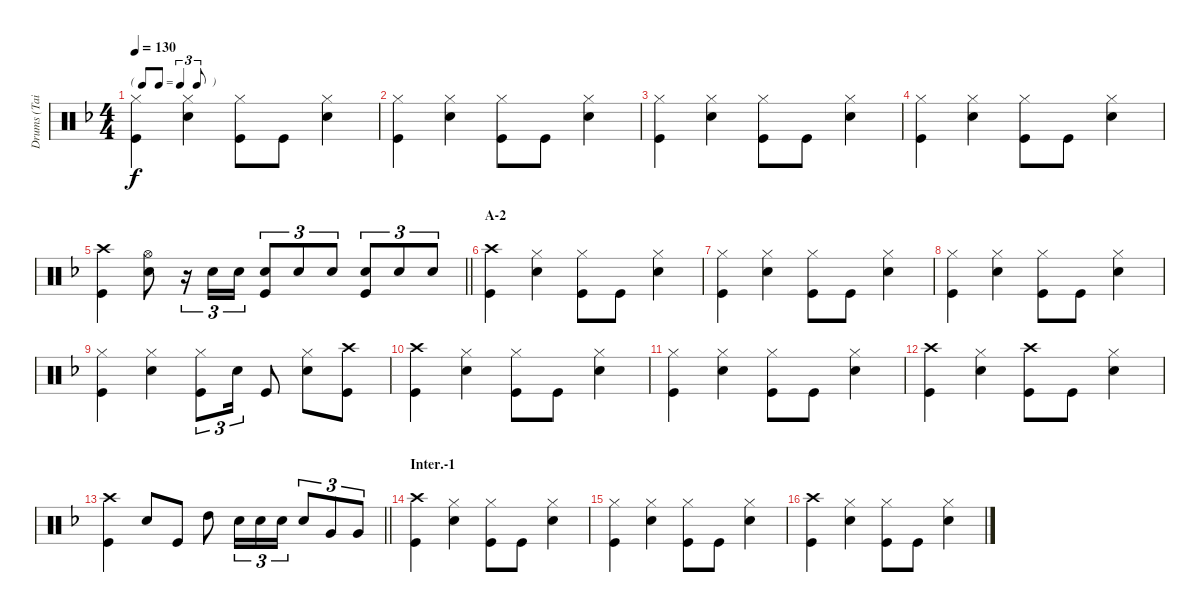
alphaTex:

\track ("Drums (Tainaka Ritsu)" "Drums (Tai") {instrument percussion}
\staff {score}
\articulation defaults
\ts (4 4)
\tf triplet8th
\tempo 130
\clef neutral
\ks f
("Hi-Hat (closed)" "Kick (hit)").4{dy f} ("Hi-Hat (closed)" "Snare (hit) 2").4 ("Hi-Hat (closed)" "Kick (hit)").8 "Kick (hit)".8 ("Hi-Hat (closed)" "Snare (hit) 2").4 |
("Hi-Hat (closed)" "Kick (hit)").4 ("Hi-Hat (closed)" "Snare (hit) 2").4 ("Hi-Hat (closed)" "Kick (hit)").8 "Kick (hit)".8 ("Hi-Hat (closed)" "Snare (hit) 2").4 |
("Hi-Hat (closed)" "Kick (hit)").4 ("Hi-Hat (closed)" "Snare (hit) 2").4 ("Hi-Hat (closed)" "Kick (hit)").8 "Kick (hit)".8 ("Hi-Hat (closed)" "Snare (hit) 2").4 |
("Hi-Hat (closed)" "Kick (hit)").4 ("Hi-Hat (closed)" "Snare (hit) 2").4 ("Hi-Hat (closed)" "Kick (hit)").8 "Kick (hit)".8 ("Hi-Hat (closed)" "Snare (hit) 2").4 |
\barLineRight lightlight
("Crash high (hit)" "Kick (hit)").4 ("Hi-Hat (open)" "Snare (hit) 2").8 r.16{tu (3 2)} "Snare (hit) 2".16{tu (3 2)} "Snare (hit) 2".16{tu (3 2)} ("Snare (hit) 2" "Kick (hit)").8{tu (3 2)} "Snare (hit) 2".8{tu (3 2)} "Snare (hit) 2".8{tu (3 2)} ("Snare (hit) 2" "Kick (hit)").8{tu (3 2)} "Snare (hit) 2".8{tu (3 2)} "Snare (hit) 2".8{tu (3 2)} |
\section ("" "A-2")
("Crash high (hit)" "Kick (hit)").4 ("Hi-Hat (closed)" "Snare (hit) 2").4 ("Hi-Hat (closed)" "Kick (hit)").8 "Kick (hit)".8 ("Hi-Hat (closed)" "Snare (hit) 2").4 |
("Hi-Hat (closed)" "Kick (hit)").4 ("Hi-Hat (closed)" "Snare (hit) 2").4 ("Hi-Hat (closed)" "Kick (hit)").8 "Kick (hit)".8 ("Hi-Hat (closed)" "Snare (hit) 2").4 |
("Hi-Hat (closed)" "Kick (hit)").4 ("Hi-Hat (closed)" "Snare (hit) 2").4 ("Hi-Hat (closed)" "Kick (hit)").8 "Kick (hit)".8 ("Hi-Hat (closed)" "Snare (hit) 2").4 |
("Hi-Hat (closed)" "Kick (hit)").4 ("Hi-Hat (closed)" "Snare (hit) 2").4 ("Hi-Hat (closed)" "Kick (hit)").8{tu (3 2)} "Snare (hit) 2".16{tu (3 2)} "Kick (hit)".8 ("Hi-Hat (closed)" "Snare (hit) 2").8 ("Crash high (hit)" "Kick (hit)").8 |
("Crash high (hit)" "Kick (hit)").4 ("Hi-Hat (closed)" "Snare (hit) 2").4 ("Hi-Hat (closed)" "Kick (hit)").8 "Kick (hit)".8 ("Hi-Hat (closed)" "Snare (hit) 2").4 |
("Hi-Hat (closed)" "Kick (hit)").4 ("Hi-Hat (closed)" "Snare (hit) 2").4 ("Hi-Hat (closed)" "Kick (hit)").8 "Kick (hit)".8 ("Hi-Hat (closed)" "Snare (hit) 2").4 |
("Crash high (hit)" "Kick (hit)").4 ("Hi-Hat (closed)" "Snare (hit) 2").4 ("Crash high (hit)" "Kick (hit)").8 "Kick (hit)".8 ("Hi-Hat (closed)" "Snare (hit) 2").4 |
\barLineRight lightlight
("Crash high (hit)" "Kick (hit)").4 "Snare (hit) 2".8 "Kick (hit)".8 "High Tom (hit)".8 "Snare (hit) 2".16{tu (3 2)} "Snare (hit) 2".16{tu (3 2)} "Snare (hit) 2".16{tu (3 2)} "Snare (hit) 2".8{tu (3 2)} "Very Low Tom (hit)".8{tu (3 2)} "Very Low Tom (hit)".8{tu (3 2)} |
\section ("" "Inter.-1")
("Crash high (hit)" "Kick (hit)").4 ("Hi-Hat (closed)" "Snare (hit) 2").4 ("Hi-Hat (closed)" "Kick (hit)").8 "Kick (hit)".8 ("Hi-Hat (closed)" "Snare (hit) 2").4 |
("Hi-Hat (closed)" "Kick (hit)").4 ("Hi-Hat (closed)" "Snare (hit) 2").4 ("Hi-Hat (closed)" "Kick (hit)").8 "Kick (hit)".8 ("Hi-Hat (closed)" "Snare (hit) 2").4 |
("Crash high (hit)" "Kick (hit)").4 ("Hi-Hat (closed)" "Snare (hit) 2").4 ("Hi-Hat (closed)" "Kick (hit)").8 "Kick (hit)".8 ("Hi-Hat (closed)" "Snare (hit) 2").4
